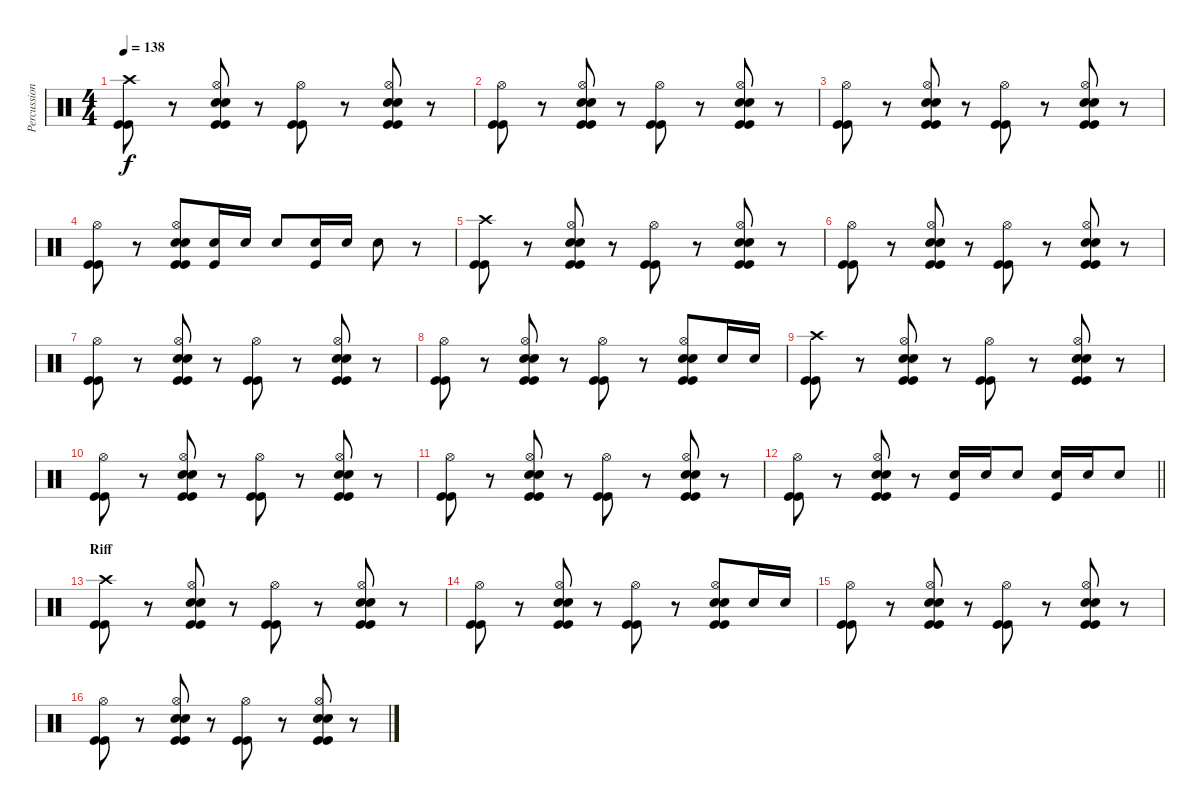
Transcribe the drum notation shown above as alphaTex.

\track ("Percussioni" "Percussion") {instrument percussion}
\staff {score}
\articulation defaults
\ts (4 4)
\tempo 138
\clef neutral
\ks c
("Crash high (hit)" "Kick (hit)" "Kick (hit)").8{dy f} r.8 ("Hi-Hat (open)" "Snare (hit) 2" "Snare (hit) 2" "Kick (hit)" "Kick (hit)").8 r.8 ("Hi-Hat (open)" "Kick (hit)" "Kick (hit)").8 r.8 ("Hi-Hat (open)" "Snare (hit) 2" "Snare (hit) 2" "Kick (hit)" "Kick (hit)").8 r.8 |
("Hi-Hat (open)" "Kick (hit)" "Kick (hit)").8 r.8 ("Hi-Hat (open)" "Snare (hit) 2" "Snare (hit) 2" "Kick (hit)" "Kick (hit)").8 r.8 ("Hi-Hat (open)" "Kick (hit)" "Kick (hit)").8 r.8 ("Hi-Hat (open)" "Snare (hit) 2" "Snare (hit) 2" "Kick (hit)" "Kick (hit)").8 r.8 |
("Hi-Hat (open)" "Kick (hit)" "Kick (hit)").8 r.8 ("Hi-Hat (open)" "Snare (hit) 2" "Snare (hit) 2" "Kick (hit)" "Kick (hit)").8 r.8 ("Hi-Hat (open)" "Kick (hit)" "Kick (hit)").8 r.8 ("Hi-Hat (open)" "Snare (hit) 2" "Snare (hit) 2" "Kick (hit)" "Kick (hit)").8 r.8 |
("Hi-Hat (open)" "Kick (hit)" "Kick (hit)").8 r.8 ("Hi-Hat (open)" "Snare (hit) 2" "Snare (hit) 2" "Kick (hit)" "Kick (hit)").8 ("Snare (hit) 2" "Kick (hit)").16 "Snare (hit) 2".16 "Snare (hit) 2".8 ("Snare (hit) 2" "Kick (hit)").16 "Snare (hit) 2".16 "Snare (hit) 2".8 r.8 |
("Crash high (hit)" "Kick (hit)" "Kick (hit)").8 r.8 ("Hi-Hat (open)" "Snare (hit) 2" "Snare (hit) 2" "Kick (hit)" "Kick (hit)").8 r.8 ("Hi-Hat (open)" "Kick (hit)" "Kick (hit)").8 r.8 ("Hi-Hat (open)" "Snare (hit) 2" "Snare (hit) 2" "Kick (hit)" "Kick (hit)").8 r.8 |
("Hi-Hat (open)" "Kick (hit)" "Kick (hit)").8 r.8 ("Hi-Hat (open)" "Snare (hit) 2" "Snare (hit) 2" "Kick (hit)" "Kick (hit)").8 r.8 ("Hi-Hat (open)" "Kick (hit)" "Kick (hit)").8 r.8 ("Hi-Hat (open)" "Snare (hit) 2" "Snare (hit) 2" "Kick (hit)" "Kick (hit)").8 r.8 |
("Hi-Hat (open)" "Kick (hit)" "Kick (hit)").8 r.8 ("Hi-Hat (open)" "Snare (hit) 2" "Snare (hit) 2" "Kick (hit)" "Kick (hit)").8 r.8 ("Hi-Hat (open)" "Kick (hit)" "Kick (hit)").8 r.8 ("Hi-Hat (open)" "Snare (hit) 2" "Snare (hit) 2" "Kick (hit)" "Kick (hit)").8 r.8 |
("Hi-Hat (open)" "Kick (hit)" "Kick (hit)").8 r.8 ("Hi-Hat (open)" "Snare (hit) 2" "Snare (hit) 2" "Kick (hit)" "Kick (hit)").8 r.8 ("Hi-Hat (open)" "Kick (hit)" "Kick (hit)").8 r.8 ("Hi-Hat (open)" "Snare (hit) 2" "Snare (hit) 2" "Kick (hit)" "Kick (hit)").8 "Snare (hit) 2".16 "Snare (hit) 2".16 |
("Crash high (hit)" "Kick (hit)" "Kick (hit)").8 r.8 ("Hi-Hat (open)" "Snare (hit) 2" "Snare (hit) 2" "Kick (hit)" "Kick (hit)").8 r.8 ("Hi-Hat (open)" "Kick (hit)" "Kick (hit)").8 r.8 ("Hi-Hat (open)" "Snare (hit) 2" "Snare (hit) 2" "Kick (hit)" "Kick (hit)").8 r.8 |
("Hi-Hat (open)" "Kick (hit)" "Kick (hit)").8 r.8 ("Hi-Hat (open)" "Snare (hit) 2" "Snare (hit) 2" "Kick (hit)" "Kick (hit)").8 r.8 ("Hi-Hat (open)" "Kick (hit)" "Kick (hit)").8 r.8 ("Hi-Hat (open)" "Snare (hit) 2" "Snare (hit) 2" "Kick (hit)" "Kick (hit)").8 r.8 |
("Hi-Hat (open)" "Kick (hit)" "Kick (hit)").8 r.8 ("Hi-Hat (open)" "Snare (hit) 2" "Snare (hit) 2" "Kick (hit)" "Kick (hit)").8 r.8 ("Hi-Hat (open)" "Kick (hit)" "Kick (hit)").8 r.8 ("Hi-Hat (open)" "Snare (hit) 2" "Snare (hit) 2" "Kick (hit)" "Kick (hit)").8 r.8 |
\barLineRight lightlight
("Hi-Hat (open)" "Kick (hit)" "Kick (hit)").8 r.8 ("Hi-Hat (open)" "Snare (hit) 2" "Snare (hit) 2" "Kick (hit)" "Kick (hit)").8 r.8 ("Snare (hit) 2" "Kick (hit)").16 "Snare (hit) 2".16 "Snare (hit) 2".8 ("Snare (hit) 2" "Kick (hit)").16 "Snare (hit) 2".16 "Snare (hit) 2".8 |
\section ("" "Riff")
("Crash high (hit)" "Kick (hit)" "Kick (hit)").8 r.8 ("Hi-Hat (open)" "Snare (hit) 2" "Snare (hit) 2" "Kick (hit)" "Kick (hit)").8 r.8 ("Hi-Hat (open)" "Kick (hit)" "Kick (hit)").8 r.8 ("Hi-Hat (open)" "Snare (hit) 2" "Snare (hit) 2" "Kick (hit)" "Kick (hit)").8 r.8 |
("Hi-Hat (open)" "Kick (hit)" "Kick (hit)").8 r.8 ("Hi-Hat (open)" "Snare (hit) 2" "Snare (hit) 2" "Kick (hit)" "Kick (hit)").8 r.8 ("Hi-Hat (open)" "Kick (hit)" "Kick (hit)").8 r.8 ("Hi-Hat (open)" "Snare (hit) 2" "Snare (hit) 2" "Kick (hit)" "Kick (hit)").8 "Snare (hit) 2".16 "Snare (hit) 2".16 |
("Hi-Hat (open)" "Kick (hit)" "Kick (hit)").8 r.8 ("Hi-Hat (open)" "Snare (hit) 2" "Snare (hit) 2" "Kick (hit)" "Kick (hit)").8 r.8 ("Hi-Hat (open)" "Kick (hit)" "Kick (hit)").8 r.8 ("Hi-Hat (open)" "Snare (hit) 2" "Snare (hit) 2" "Kick (hit)" "Kick (hit)").8 r.8 |
("Hi-Hat (open)" "Kick (hit)" "Kick (hit)").8 r.8 ("Hi-Hat (open)" "Snare (hit) 2" "Snare (hit) 2" "Kick (hit)" "Kick (hit)").8 r.8 ("Hi-Hat (open)" "Kick (hit)" "Kick (hit)").8 r.8 ("Hi-Hat (open)" "Snare (hit) 2" "Snare (hit) 2" "Kick (hit)" "Kick (hit)").8 r.8
